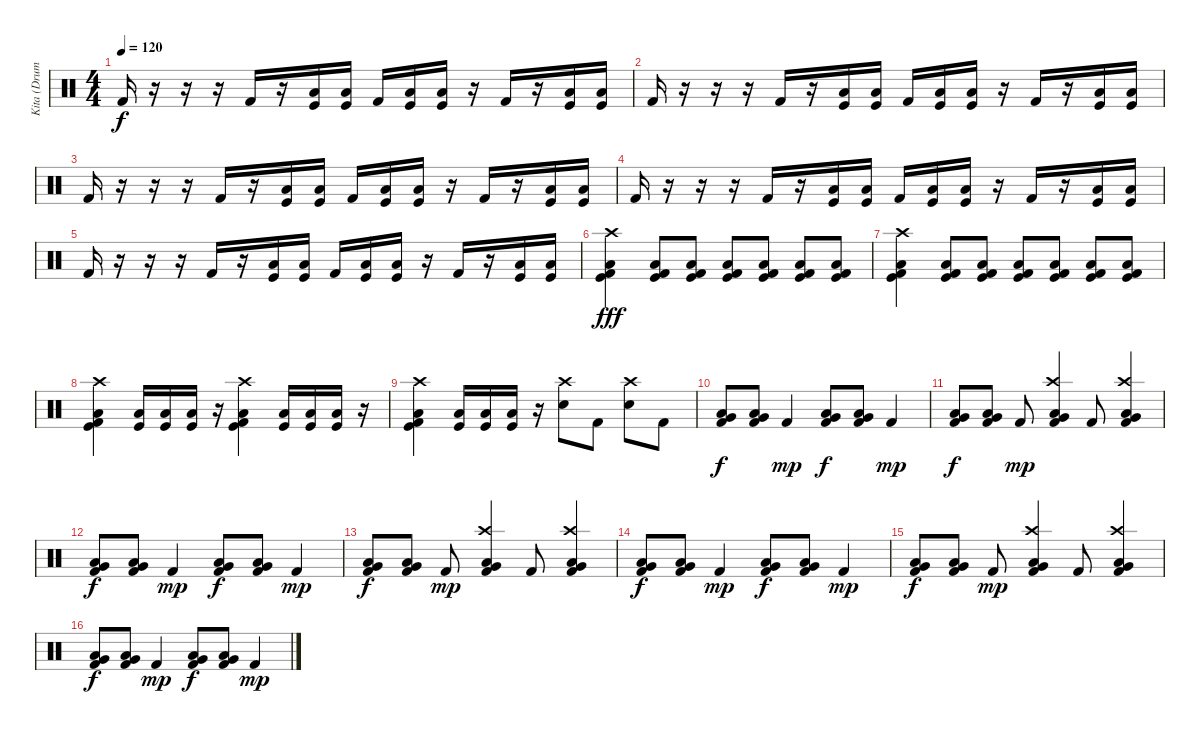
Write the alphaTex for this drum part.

\track ("Kita (Drums)" "Kita (Drum") {instrument percussion}
\staff {score}
\articulation defaults
\ts (4 4)
\tempo 120
\clef neutral
\ks c "Kick (hit) 2".16{dy f}
r.16 r.16 r.16 "Kick (hit) 2".16 r.16 ("Kick (hit)" "Low Floor Tom (hit)").16 ("Kick (hit)" "Low Floor Tom (hit)").16 "Kick (hit) 2".16 ("Kick (hit)" "Low Floor Tom (hit)").16 ("Kick (hit)" "Low Floor Tom (hit)").16 r.16 "Kick (hit) 2".16 r.16 ("Kick (hit)" "Low Floor Tom (hit)").16 ("Kick (hit)" "Low Floor Tom (hit)").16 |
"Kick (hit) 2".16 r.16 r.16 r.16 "Kick (hit) 2".16 r.16 ("Kick (hit)" "Low Floor Tom (hit)").16 ("Kick (hit)" "Low Floor Tom (hit)").16 "Kick (hit) 2".16 ("Kick (hit)" "Low Floor Tom (hit)").16 ("Kick (hit)" "Low Floor Tom (hit)").16 r.16 "Kick (hit) 2".16 r.16 ("Kick (hit)" "Low Floor Tom (hit)").16 ("Kick (hit)" "Low Floor Tom (hit)").16 |
"Kick (hit) 2".16{volume 14} r.16 r.16 r.16 "Kick (hit) 2".16 r.16 ("Kick (hit)" "Low Floor Tom (hit)").16 ("Kick (hit)" "Low Floor Tom (hit)").16 "Kick (hit) 2".16 ("Kick (hit)" "Low Floor Tom (hit)").16 ("Kick (hit)" "Low Floor Tom (hit)").16 r.16 "Kick (hit) 2".16 r.16 ("Kick (hit)" "Low Floor Tom (hit)").16 ("Kick (hit)" "Low Floor Tom (hit)").16 |
"Kick (hit) 2".16 r.16 r.16 r.16 "Kick (hit) 2".16 r.16 ("Kick (hit)" "Low Floor Tom (hit)").16 ("Kick (hit)" "Low Floor Tom (hit)").16 "Kick (hit) 2".16 ("Kick (hit)" "Low Floor Tom (hit)").16 ("Kick (hit)" "Low Floor Tom (hit)").16 r.16 "Kick (hit) 2".16 r.16 ("Kick (hit)" "Low Floor Tom (hit)").16 ("Kick (hit)" "Low Floor Tom (hit)").16 |
"Kick (hit) 2".16 r.16 r.16 r.16 "Kick (hit) 2".16 r.16 ("Kick (hit)" "Low Floor Tom (hit)").16 ("Kick (hit)" "Low Floor Tom (hit)").16 "Kick (hit) 2".16 ("Kick (hit)" "Low Floor Tom (hit)").16 ("Kick (hit)" "Low Floor Tom (hit)").16 r.16 "Kick (hit) 2".16 r.16 ("Kick (hit)" "Low Floor Tom (hit)").16 ("Kick (hit)" "Low Floor Tom (hit)").16 |
("Crash high (hit)" "Low Floor Tom (hit)" "Kick (hit)" "Kick (hit) 2").4{dy fff} ("Low Floor Tom (hit)" "Kick (hit)" "Kick (hit) 2").8 ("Low Floor Tom (hit)" "Kick (hit)" "Kick (hit) 2").8 ("Low Floor Tom (hit)" "Kick (hit)" "Kick (hit) 2").8 ("Low Floor Tom (hit)" "Kick (hit)" "Kick (hit) 2").8 ("Low Floor Tom (hit)" "Kick (hit)" "Kick (hit) 2").8 ("Low Floor Tom (hit)" "Kick (hit)" "Kick (hit) 2").8 |
("Crash high (hit)" "Low Floor Tom (hit)" "Kick (hit)" "Kick (hit) 2").4 ("Low Floor Tom (hit)" "Kick (hit)" "Kick (hit) 2").8 ("Low Floor Tom (hit)" "Kick (hit)" "Kick (hit) 2").8 ("Low Floor Tom (hit)" "Kick (hit)" "Kick (hit) 2").8 ("Low Floor Tom (hit)" "Kick (hit)" "Kick (hit) 2").8 ("Low Floor Tom (hit)" "Kick (hit)" "Kick (hit) 2").8 ("Low Floor Tom (hit)" "Kick (hit)" "Kick (hit) 2").8 |
("Crash high (hit)" "Low Floor Tom (hit)" "Kick (hit)" "Kick (hit) 2").4 ("Kick (hit)" "Low Floor Tom (hit)").16 ("Kick (hit)" "Low Floor Tom (hit)").16 ("Kick (hit)" "Low Floor Tom (hit)").16 r.16 ("Crash high (hit)" "Low Floor Tom (hit)" "Kick (hit)" "Kick (hit) 2").4 ("Kick (hit)" "Low Floor Tom (hit)").16 ("Kick (hit)" "Low Floor Tom (hit)").16 ("Kick (hit)" "Low Floor Tom (hit)").16 r.16 |
("Crash high (hit)" "Low Floor Tom (hit)" "Kick (hit)" "Kick (hit) 2").4 ("Kick (hit)" "Low Floor Tom (hit)").16 ("Kick (hit)" "Low Floor Tom (hit)").16 ("Kick (hit)" "Low Floor Tom (hit)").16 r.16 ("Crash high (hit)" "Snare (hit) 2").8 "Kick (hit) 2".8 ("Crash high (hit)" "Snare (hit) 2").8 "Kick (hit) 2".8 |
("Low Floor Tom (hit)" "Very Low Tom (hit)" "Kick (hit) 2").8{dy f} ("Low Floor Tom (hit)" "Very Low Tom (hit)" "Kick (hit) 2").8 "Kick (hit) 2".4{dy mp} ("Low Floor Tom (hit)" "Very Low Tom (hit)" "Kick (hit) 2").8{dy f} ("Low Floor Tom (hit)" "Very Low Tom (hit)" "Kick (hit) 2").8 "Kick (hit) 2".4{dy mp} |
("Low Floor Tom (hit)" "Very Low Tom (hit)" "Kick (hit) 2").8{dy f} ("Low Floor Tom (hit)" "Very Low Tom (hit)" "Kick (hit) 2").8 "Kick (hit) 2".8{dy mp} ("Crash high (hit)" "Kick (hit) 2" "Low Floor Tom (hit)" "Very Low Tom (hit)").4 "Kick (hit) 2".8 ("Crash high (hit)" "Kick (hit) 2" "Very Low Tom (hit)" "Low Floor Tom (hit)").4 |
("Low Floor Tom (hit)" "Very Low Tom (hit)" "Kick (hit) 2").8{dy f} ("Low Floor Tom (hit)" "Very Low Tom (hit)" "Kick (hit) 2").8 "Kick (hit) 2".4{dy mp} ("Low Floor Tom (hit)" "Very Low Tom (hit)" "Kick (hit) 2").8{dy f} ("Low Floor Tom (hit)" "Very Low Tom (hit)" "Kick (hit) 2").8 "Kick (hit) 2".4{dy mp} |
("Low Floor Tom (hit)" "Very Low Tom (hit)" "Kick (hit) 2").8{dy f} ("Low Floor Tom (hit)" "Very Low Tom (hit)" "Kick (hit) 2").8 "Kick (hit) 2".8{dy mp} ("Crash high (hit)" "Kick (hit) 2" "Low Floor Tom (hit)" "Very Low Tom (hit)").4 "Kick (hit) 2".8 ("Crash high (hit)" "Kick (hit) 2" "Very Low Tom (hit)" "Low Floor Tom (hit)").4 |
("Low Floor Tom (hit)" "Very Low Tom (hit)" "Kick (hit) 2").8{dy f} ("Low Floor Tom (hit)" "Very Low Tom (hit)" "Kick (hit) 2").8 "Kick (hit) 2".4{dy mp} ("Low Floor Tom (hit)" "Very Low Tom (hit)" "Kick (hit) 2").8{dy f} ("Low Floor Tom (hit)" "Very Low Tom (hit)" "Kick (hit) 2").8 "Kick (hit) 2".4{dy mp} |
("Low Floor Tom (hit)" "Very Low Tom (hit)" "Kick (hit) 2").8{dy f} ("Low Floor Tom (hit)" "Very Low Tom (hit)" "Kick (hit) 2").8 "Kick (hit) 2".8{dy mp} ("Crash high (hit)" "Kick (hit) 2" "Low Floor Tom (hit)" "Very Low Tom (hit)").4 "Kick (hit) 2".8 ("Crash high (hit)" "Kick (hit) 2" "Very Low Tom (hit)" "Low Floor Tom (hit)").4 |
("Low Floor Tom (hit)" "Very Low Tom (hit)" "Kick (hit) 2").8{dy f} ("Low Floor Tom (hit)" "Very Low Tom (hit)" "Kick (hit) 2").8 "Kick (hit) 2".4{dy mp} ("Low Floor Tom (hit)" "Very Low Tom (hit)" "Kick (hit) 2").8{dy f} ("Low Floor Tom (hit)" "Very Low Tom (hit)" "Kick (hit) 2").8 "Kick (hit) 2".4{dy mp}
